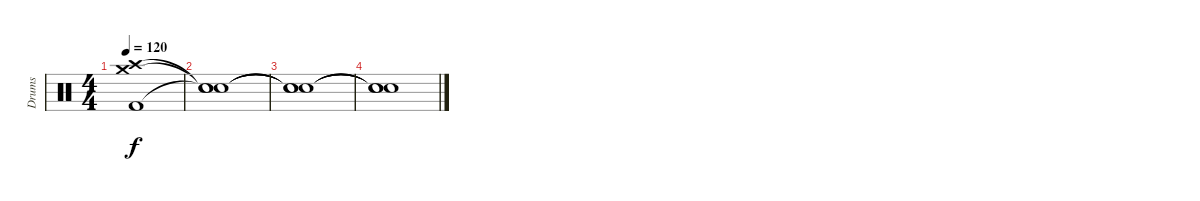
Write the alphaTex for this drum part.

\track ("Drums" "Drums") {instrument percussion}
\staff {score}
\articulation defaults
\ts (4 4)
\tempo 120
\clef neutral
\ks c
("Crash high (hit)" "Crash medium (hit)" "Kick (hit) 2").1{dy f volume 0} |
("Snare (hit)"{t} "Snare (hit)"{t} "Snare (hit)"{t}).1 |
("Snare (hit)"{t} "Snare (hit)"{t} "Snare (hit)"{t}).1 |
("Snare (hit)"{t} "Snare (hit)"{t} "Snare (hit)"{t}).1
